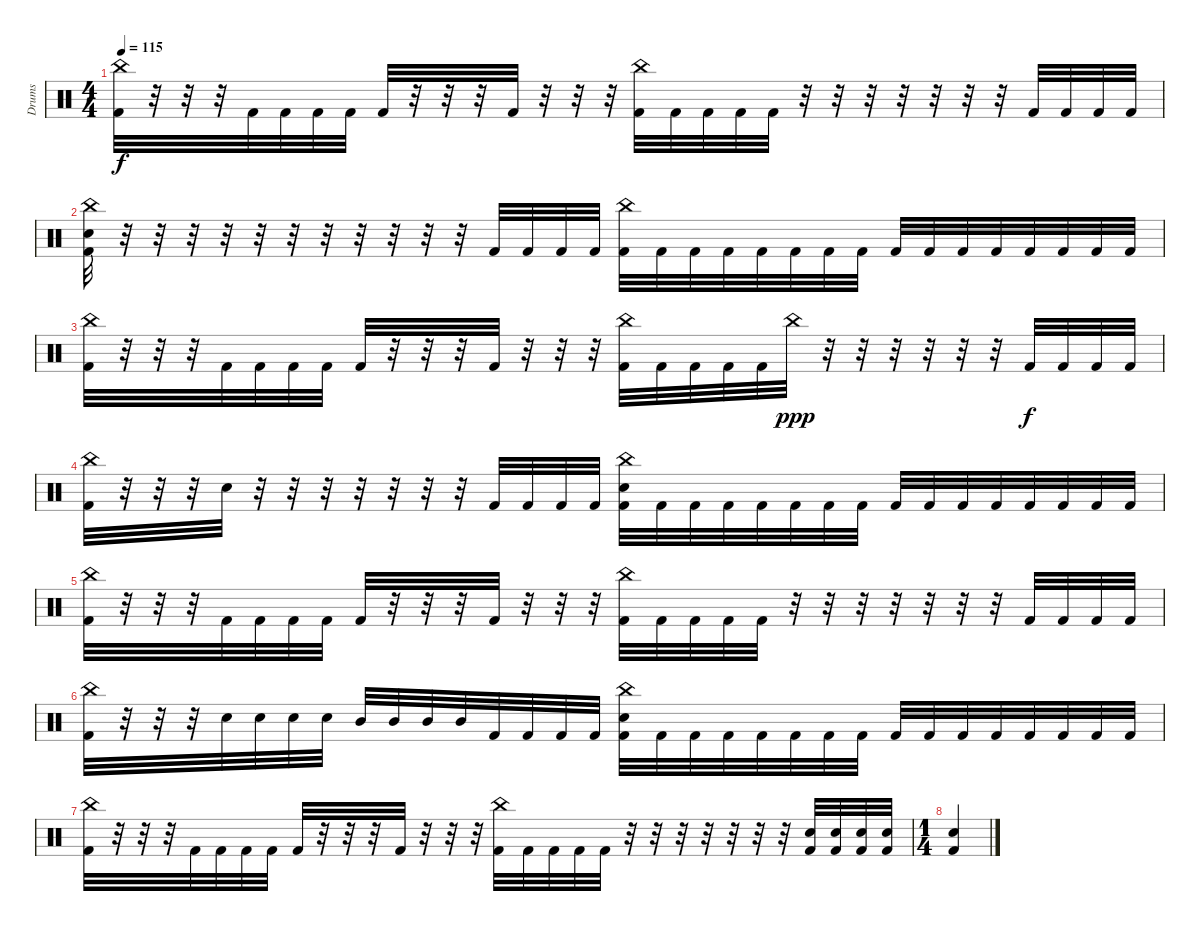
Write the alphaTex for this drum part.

\track ("Drums" "Drums") {instrument percussion}
\staff {score}
\articulation defaults
\ts (4 4)
\tempo 115
\clef neutral
\ks c
("China (hit)" "Kick (hit) 2").32{dy f} r.32 r.32 r.32 "Kick (hit) 2".32 "Kick (hit) 2".32 "Kick (hit) 2".32 "Kick (hit) 2".32 "Kick (hit) 2".32 r.32 r.32 r.32 "Kick (hit) 2".32 r.32 r.32 r.32 ("China (hit)" "Kick (hit) 2").32 "Kick (hit) 2".32 "Kick (hit) 2".32 "Kick (hit) 2".32 "Kick (hit) 2".32 r.32 r.32 r.32 r.32 r.32 r.32 r.32 "Kick (hit) 2".32 "Kick (hit) 2".32 "Kick (hit) 2".32 "Kick (hit) 2".32 |
("Snare (hit) 2" "China (hit)" "Kick (hit) 2").32 r.32 r.32 r.32 r.32 r.32 r.32 r.32 r.32 r.32 r.32 r.32 "Kick (hit) 2".32 "Kick (hit) 2".32 "Kick (hit) 2".32 "Kick (hit) 2".32 ("China (hit)" "Kick (hit) 2").32 "Kick (hit) 2".32 "Kick (hit) 2".32 "Kick (hit) 2".32 "Kick (hit) 2".32 "Kick (hit) 2".32 "Kick (hit) 2".32 "Kick (hit) 2".32 "Kick (hit) 2".32 "Kick (hit) 2".32 "Kick (hit) 2".32 "Kick (hit) 2".32 "Kick (hit) 2".32 "Kick (hit) 2".32 "Kick (hit) 2".32 "Kick (hit) 2".32 |
("China (hit)" "Kick (hit) 2").32 r.32 r.32 r.32 "Kick (hit) 2".32 "Kick (hit) 2".32 "Kick (hit) 2".32 "Kick (hit) 2".32 "Kick (hit) 2".32 r.32 r.32 r.32 "Kick (hit) 2".32 r.32 r.32 r.32 ("China (hit)" "Kick (hit) 2").32 "Kick (hit) 2".32 "Kick (hit) 2".32 "Kick (hit) 2".32 "Kick (hit) 2".32 "China (hit)".32{dy ppp} r.32 r.32 r.32 r.32 r.32 r.32 "Kick (hit) 2".32{dy f} "Kick (hit) 2".32 "Kick (hit) 2".32 "Kick (hit) 2".32 |
("China (hit)" "Kick (hit) 2").32 r.32 r.32 r.32 "Snare (hit) 2".32 r.32 r.32 r.32 r.32 r.32 r.32 r.32 "Kick (hit) 2".32 "Kick (hit) 2".32 "Kick (hit) 2".32 "Kick (hit) 2".32 ("Snare (hit) 2" "China (hit)" "Kick (hit) 2").32 "Kick (hit) 2".32 "Kick (hit) 2".32 "Kick (hit) 2".32 "Kick (hit) 2".32 "Kick (hit) 2".32 "Kick (hit) 2".32 "Kick (hit) 2".32 "Kick (hit) 2".32 "Kick (hit) 2".32 "Kick (hit) 2".32 "Kick (hit) 2".32 "Kick (hit) 2".32 "Kick (hit) 2".32 "Kick (hit) 2".32 "Kick (hit) 2".32 |
("China (hit)" "Kick (hit) 2").32 r.32 r.32 r.32 "Kick (hit) 2".32 "Kick (hit) 2".32 "Kick (hit) 2".32 "Kick (hit) 2".32 "Kick (hit) 2".32 r.32 r.32 r.32 "Kick (hit) 2".32 r.32 r.32 r.32 ("China (hit)" "Kick (hit) 2").32 "Kick (hit) 2".32 "Kick (hit) 2".32 "Kick (hit) 2".32 "Kick (hit) 2".32 r.32 r.32 r.32 r.32 r.32 r.32 r.32 "Kick (hit) 2".32 "Kick (hit) 2".32 "Kick (hit) 2".32 "Kick (hit) 2".32 |
("China (hit)" "Kick (hit) 2").32 r.32 r.32 r.32 "Snare (hit) 2".32 "Snare (hit) 2".32 "Snare (hit) 2".32 "Snare (hit) 2".32 "Mid Tom (hit)".32 "Mid Tom (hit)".32 "Mid Tom (hit)".32 "Mid Tom (hit)".32 "Kick (hit) 2".32 "Kick (hit) 2".32 "Kick (hit) 2".32 "Kick (hit) 2".32 ("Snare (hit) 2" "China (hit)" "Kick (hit) 2").32 "Kick (hit) 2".32 "Kick (hit) 2".32 "Kick (hit) 2".32 "Kick (hit) 2".32 "Kick (hit) 2".32 "Kick (hit) 2".32 "Kick (hit) 2".32 "Kick (hit) 2".32 "Kick (hit) 2".32 "Kick (hit) 2".32 "Kick (hit) 2".32 "Kick (hit) 2".32 "Kick (hit) 2".32 "Kick (hit) 2".32 "Kick (hit) 2".32 |
("China (hit)" "Kick (hit) 2").32 r.32 r.32 r.32 "Kick (hit) 2".32 "Kick (hit) 2".32 "Kick (hit) 2".32 "Kick (hit) 2".32 "Kick (hit) 2".32 r.32 r.32 r.32 "Kick (hit) 2".32 r.32 r.32 r.32 ("China (hit)" "Kick (hit) 2").32 "Kick (hit) 2".32 "Kick (hit) 2".32 "Kick (hit) 2".32 "Kick (hit) 2".32 r.32 r.32 r.32 r.32 r.32 r.32 r.32 ("Snare (hit) 2" "Kick (hit) 2").32 ("Snare (hit) 2" "Kick (hit) 2").32 ("Snare (hit) 2" "Kick (hit) 2").32 ("Snare (hit) 2" "Kick (hit) 2").32 |
\ts (1 4)
("Snare (hit) 2" "Kick (hit) 2").4
